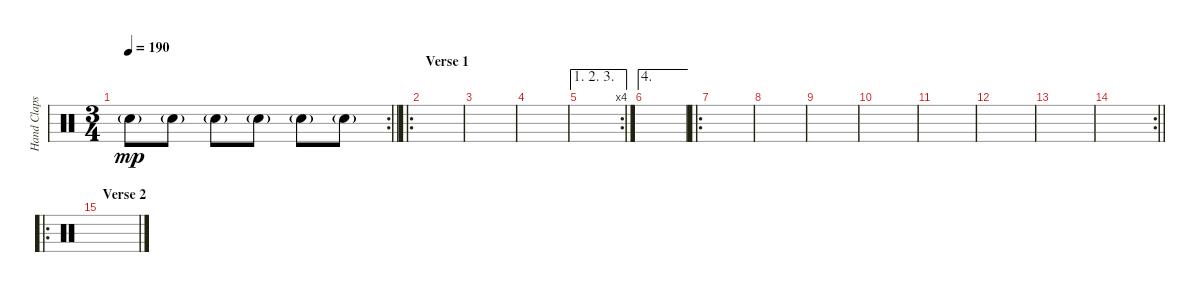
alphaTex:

\track ("Hand Claps" "Hand Claps") {instrument percussion bank 1}
\staff {score}
\articulation defaults
\rc 2
\ts (3 4)
\tempo 190
\clef neutral
\barLineRight lightlight
\ks c "Hand Clap (hit)"{g}.8{dy mp} "Hand Clap (hit)"{g}.8 "Hand Clap (hit)"{g}.8 "Hand Clap (hit)"{g}.8 "Hand Clap (hit)"{g}.8 "Hand Clap (hit)"{g}.8
|
\ro
\section ("" "Verse 1")
|
|
|
\ae (1 2 3)
\rc 4
|
\ae 4
|
\ro
|
|
|
|
|
|
|
\rc 2
\barLineRight lightlight
|
\ro
\section ("" "Verse 2")
